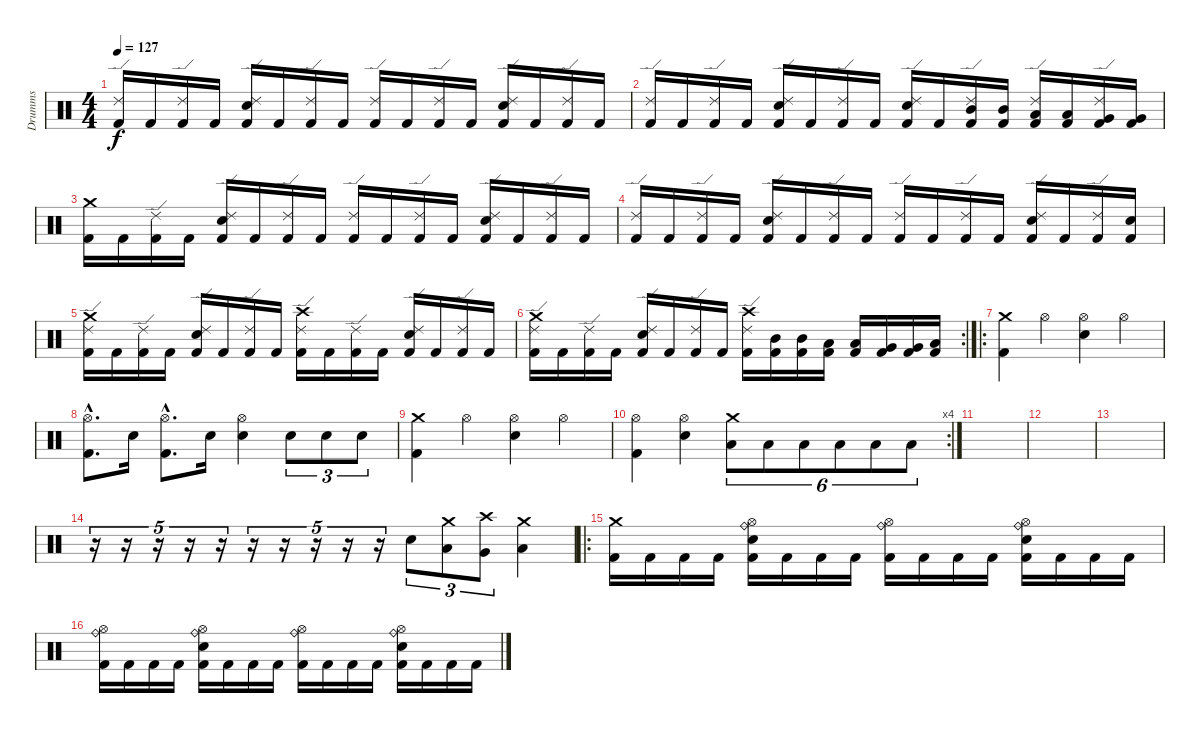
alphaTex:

\track ("Drumms" "Drumms") {instrument percussion}
\staff {score}
\articulation defaults
\ts (4 4)
\tempo 127
\clef neutral
\ks c
("Kick (hit) 2" "Ride (edge) 2").16{dy f} "Kick (hit) 2".16 ("Kick (hit) 2" "Ride (edge) 2").16 "Kick (hit) 2".16 ("Kick (hit) 2" "Snare (hit) 2" "Ride (edge) 2").16 "Kick (hit) 2".16 ("Kick (hit) 2" "Ride (edge) 2").16 "Kick (hit) 2".16 ("Kick (hit) 2" "Ride (edge) 2").16 "Kick (hit) 2".16 ("Kick (hit) 2" "Ride (edge) 2").16 "Kick (hit) 2".16 ("Kick (hit) 2" "Snare (hit) 2" "Ride (edge) 2").16 "Kick (hit) 2".16 ("Kick (hit) 2" "Ride (edge) 2").16 "Kick (hit) 2".16 |
("Kick (hit) 2" "Ride (edge) 2").16 "Kick (hit) 2".16 ("Kick (hit) 2" "Ride (edge) 2").16 "Kick (hit) 2".16 ("Kick (hit) 2" "Snare (hit) 2" "Ride (edge) 2").16 "Kick (hit) 2".16 ("Kick (hit) 2" "Ride (edge) 2").16 "Kick (hit) 2".16 ("Kick (hit) 2" "Snare (hit) 2" "Ride (edge) 2").16 "Kick (hit) 2".16 ("Kick (hit) 2" "Mid Tom (hit)" "Ride (edge) 2").16 ("Kick (hit) 2" "Mid Tom (hit)").16 ("Kick (hit) 2" "Low Tom (hit)" "Ride (edge) 2").16 ("Kick (hit) 2" "Low Tom (hit)").16 ("Kick (hit) 2" "Very Low Tom (hit)" "Ride (edge) 2").16 ("Kick (hit) 2" "Very Low Tom (hit)").16 |
("Kick (hit) 2" "Crash medium (hit)").16 "Kick (hit) 2".16 ("Kick (hit) 2" "Ride (edge) 2").16 "Kick (hit) 2".16 ("Kick (hit) 2" "Snare (hit) 2" "Ride (edge) 2").16 "Kick (hit) 2".16 ("Kick (hit) 2" "Ride (edge) 2").16 "Kick (hit) 2".16 ("Kick (hit) 2" "Ride (edge) 2").16 "Kick (hit) 2".16 ("Kick (hit) 2" "Ride (edge) 2").16 "Kick (hit) 2".16 ("Kick (hit) 2" "Snare (hit) 2" "Ride (edge) 2").16 "Kick (hit) 2".16 ("Kick (hit) 2" "Ride (edge) 2").16 "Kick (hit) 2".16 |
("Kick (hit) 2" "Ride (edge) 2").16 "Kick (hit) 2".16 ("Kick (hit) 2" "Ride (edge) 2").16 "Kick (hit) 2".16 ("Kick (hit) 2" "Snare (hit) 2" "Ride (edge) 2").16 "Kick (hit) 2".16 ("Kick (hit) 2" "Ride (edge) 2").16 "Kick (hit) 2".16 ("Kick (hit) 2" "Ride (edge) 2").16 "Kick (hit) 2".16 ("Kick (hit) 2" "Ride (edge) 2").16 "Kick (hit) 2".16 ("Kick (hit) 2" "Snare (hit) 2" "Ride (edge) 2").16 "Kick (hit) 2".16 ("Kick (hit) 2" "Ride (edge) 2").16 ("Kick (hit) 2" "Snare (hit) 2").16 |
("Kick (hit) 2" "Crash medium (hit)" "Ride (edge) 2").16 "Kick (hit) 2".16 ("Kick (hit) 2" "Ride (edge) 2").16 "Kick (hit) 2".16 ("Kick (hit) 2" "Snare (hit) 2" "Ride (edge) 2").16 "Kick (hit) 2".16 ("Kick (hit) 2" "Ride (edge) 2").16 "Kick (hit) 2".16 ("Kick (hit) 2" "Crash high (hit)" "Ride (edge) 2").16 "Kick (hit) 2".16 ("Kick (hit) 2" "Ride (edge) 2").16 "Kick (hit) 2".16 ("Kick (hit) 2" "Snare (hit) 2" "Ride (edge) 2").16 "Kick (hit) 2".16 ("Kick (hit) 2" "Ride (edge) 2").16 "Kick (hit) 2".16 |
\rc 2
("Kick (hit) 2" "Crash medium (hit)" "Ride (edge) 2").16 "Kick (hit) 2".16 ("Kick (hit) 2" "Ride (edge) 2").16 "Kick (hit) 2".16 ("Kick (hit) 2" "Snare (hit) 2" "Ride (edge) 2").16 "Kick (hit) 2".16 ("Kick (hit) 2" "Ride (edge) 2").16 "Kick (hit) 2".16 ("Kick (hit) 2" "Crash high (hit)" "Ride (edge) 2").16 ("Kick (hit) 2" "Mid Tom (hit)").16 ("Kick (hit) 2" "Mid Tom (hit)").16 ("Kick (hit) 2" "Low Tom (hit)").16 ("Kick (hit) 2" "Low Tom (hit)").16 ("Kick (hit) 2" "Very Low Tom (hit)").16 ("Kick (hit) 2" "Very Low Tom (hit)").16 ("Kick (hit) 2" "Low Floor Tom (hit)").16 |
\ro
("Kick (hit) 2" "Crash medium (hit)").4 "Hi-Hat (open)".4 ("Snare (hit) 2" "Hi-Hat (open)").4 "Hi-Hat (open)".4 |
("Kick (hit) 2"{hac} "Hi-Hat (open)"{hac}).8{d} "Snare (hit) 2".16 ("Kick (hit) 2"{hac} "Hi-Hat (open)"{hac}).8{d} "Snare (hit) 2".16 ("Snare (hit) 2" "Hi-Hat (open)").4 "Snare (hit) 2".8{tu (3 2)} "Snare (hit) 2".8{tu (3 2)} "Snare (hit) 2".8{tu (3 2)} |
("Kick (hit) 2" "Crash medium (hit)").4 "Hi-Hat (open)".4 ("Snare (hit) 2" "Hi-Hat (open)").4 "Hi-Hat (open)".4 |
\rc 4
("Kick (hit) 2" "Hi-Hat (open)").4 ("Snare (hit) 2" "Hi-Hat (open)").4 ("Low Tom (hit)" "Crash medium (hit)").8{tu (6 4)} "Low Tom (hit)".8{tu (6 4)} "Low Tom (hit)".8{tu (6 4)} "Low Tom (hit)".8{tu (6 4)} "Low Tom (hit)".8{tu (6 4)} "Low Tom (hit)".8{tu (6 4)} |
|
|
|
r.16{tu (5 4)} r.16{tu (5 4)} r.16{tu (5 4)} r.16{tu (5 4)} r.16{tu (5 4)} r.16{tu (5 4)} r.16{tu (5 4)} r.16{tu (5 4)} r.16{tu (5 4)} r.16{tu (5 4)} "Snare (hit) 2".8{tu (3 2)} ("Low Tom (hit)" "Crash medium (hit)").8{tu (3 2)} ("Very Low Tom (hit)" "Crash high (hit)").8{tu (3 2)} ("Low Floor Tom (hit)" "Crash medium (hit)").4 |
\ro
("Kick (hit) 2" "Crash medium (hit)").16 "Kick (hit) 2".16 "Kick (hit) 2".16 "Kick (hit) 2".16 ("Kick (hit) 2" "Snare (hit) 2" "Hi-Hat (open)" "Ride (bell)").16 "Kick (hit) 2".16 "Kick (hit) 2".16 "Kick (hit) 2".16 ("Kick (hit) 2" "Hi-Hat (open)" "Ride (bell)").16 "Kick (hit) 2".16 "Kick (hit) 2".16 "Kick (hit) 2".16 ("Kick (hit) 2" "Snare (hit) 2" "Hi-Hat (open)" "Ride (bell)").16 "Kick (hit) 2".16 "Kick (hit) 2".16 "Kick (hit) 2".16 |
("Kick (hit) 2" "Hi-Hat (open)" "Ride (bell)").16 "Kick (hit) 2".16 "Kick (hit) 2".16 "Kick (hit) 2".16 ("Kick (hit) 2" "Snare (hit) 2" "Hi-Hat (open)" "Ride (bell)").16 "Kick (hit) 2".16 "Kick (hit) 2".16 "Kick (hit) 2".16 ("Kick (hit) 2" "Hi-Hat (open)" "Ride (bell)").16 "Kick (hit) 2".16 "Kick (hit) 2".16 "Kick (hit) 2".16 ("Kick (hit) 2" "Snare (hit) 2" "Hi-Hat (open)" "Ride (bell)").16 "Kick (hit) 2".16 "Kick (hit) 2".16 "Kick (hit) 2".16
